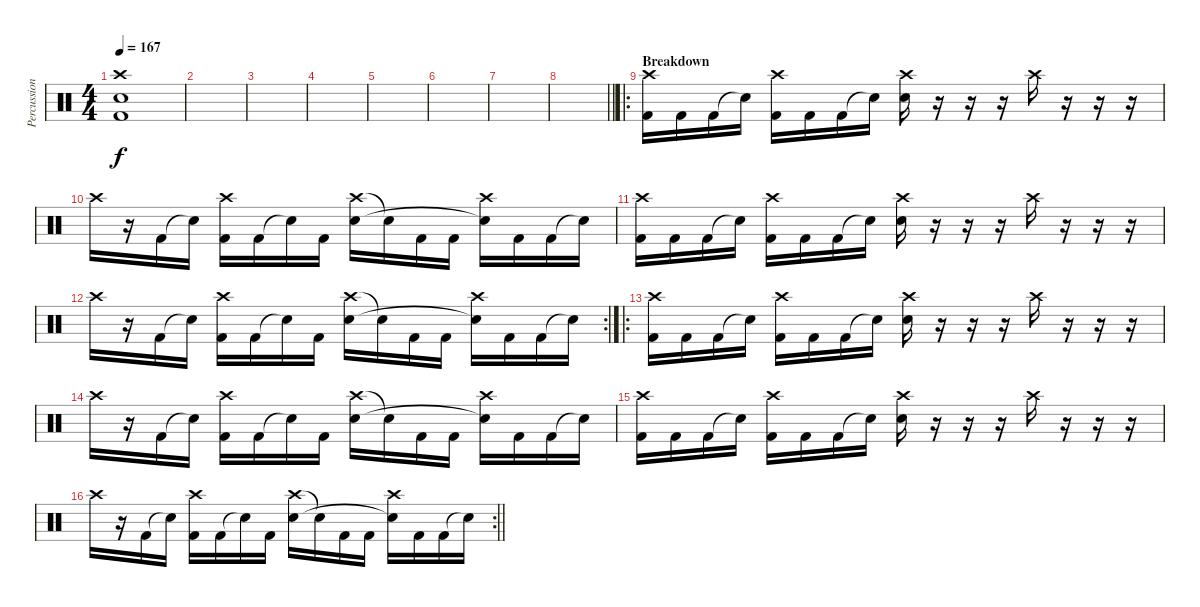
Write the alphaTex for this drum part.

\track ("Percussion" "Percussion") {instrument percussion}
\staff {score}
\articulation defaults
\ts (4 4)
\tempo 167
\clef neutral
\ks c
("Crash high (hit)" "Electric Snare (hit)" "Kick (hit) 2").1{dy f} |
|
|
|
|
|
|
\barLineRight lightlight
|
\ro
\section ("" "Breakdown")
("Crash high (hit)" "Kick (hit) 2").16 "Kick (hit) 2".16 "Kick (hit) 2".16 "Snare (hit)"{t}.16 ("Crash high (hit)" "Kick (hit) 2").16 "Kick (hit) 2".16 "Kick (hit) 2".16 "Snare (hit)"{t}.16 ("Crash high (hit)" "Electric Snare (hit)").16 r.16 r.16 r.16 "Crash high (hit)".16 r.16 r.16 r.16 |
"Crash high (hit)".16 r.16 "Kick (hit) 2".16 "Snare (hit)"{t}.16 ("Crash high (hit)" "Kick (hit) 2").16 "Kick (hit) 2".16 "Snare (hit)"{t}.16 "Kick (hit) 2".16 ("Crash high (hit)" "Electric Snare (hit)").16 "Snare (hit)"{t}.16 "Kick (hit) 2".16 "Kick (hit) 2".16 ("Crash high (hit)" "Snare (hit)"{t}).16 "Kick (hit) 2".16 "Kick (hit) 2".16 "Snare (hit)"{t}.16 |
("Crash high (hit)" "Kick (hit) 2").16 "Kick (hit) 2".16 "Kick (hit) 2".16 "Snare (hit)"{t}.16 ("Crash high (hit)" "Kick (hit) 2").16 "Kick (hit) 2".16 "Kick (hit) 2".16 "Snare (hit)"{t}.16 ("Crash high (hit)" "Electric Snare (hit)").16 r.16 r.16 r.16 "Crash high (hit)".16 r.16 r.16 r.16 |
\rc 2 "Crash high (hit)".16
r.16 "Kick (hit) 2".16 "Snare (hit)"{t}.16 ("Crash high (hit)" "Kick (hit) 2").16 "Kick (hit) 2".16 "Snare (hit)"{t}.16 "Kick (hit) 2".16 ("Crash high (hit)" "Electric Snare (hit)").16 "Snare (hit)"{t}.16 "Kick (hit) 2".16 "Kick (hit) 2".16 ("Crash high (hit)" "Snare (hit)"{t}).16 "Kick (hit) 2".16 "Kick (hit) 2".16 "Snare (hit)"{t}.16 |
\ro
("Crash high (hit)" "Kick (hit) 2").16 "Kick (hit) 2".16 "Kick (hit) 2".16 "Snare (hit)"{t}.16 ("Crash high (hit)" "Kick (hit) 2").16 "Kick (hit) 2".16 "Kick (hit) 2".16 "Snare (hit)"{t}.16 ("Crash high (hit)" "Electric Snare (hit)").16 r.16 r.16 r.16 "Crash high (hit)".16 r.16 r.16 r.16 |
"Crash high (hit)".16 r.16 "Kick (hit) 2".16 "Snare (hit)"{t}.16 ("Crash high (hit)" "Kick (hit) 2").16 "Kick (hit) 2".16 "Snare (hit)"{t}.16 "Kick (hit) 2".16 ("Crash high (hit)" "Electric Snare (hit)").16 "Snare (hit)"{t}.16 "Kick (hit) 2".16 "Kick (hit) 2".16 ("Crash high (hit)" "Snare (hit)"{t}).16 "Kick (hit) 2".16 "Kick (hit) 2".16 "Snare (hit)"{t}.16 |
("Crash high (hit)" "Kick (hit) 2").16 "Kick (hit) 2".16 "Kick (hit) 2".16 "Snare (hit)"{t}.16 ("Crash high (hit)" "Kick (hit) 2").16 "Kick (hit) 2".16 "Kick (hit) 2".16 "Snare (hit)"{t}.16 ("Crash high (hit)" "Electric Snare (hit)").16 r.16 r.16 r.16 "Crash high (hit)".16 r.16 r.16 r.16 |
\rc 2
\barLineRight lightlight "Crash high (hit)".16
r.16 "Kick (hit) 2".16 "Snare (hit)"{t}.16 ("Crash high (hit)" "Kick (hit) 2").16 "Kick (hit) 2".16 "Snare (hit)"{t}.16 "Kick (hit) 2".16 ("Crash high (hit)" "Electric Snare (hit)").16 "Snare (hit)"{t}.16 "Kick (hit) 2".16 "Kick (hit) 2".16 ("Crash high (hit)" "Snare (hit)"{t}).16 "Kick (hit) 2".16 "Kick (hit) 2".16 "Snare (hit)"{t}.16
